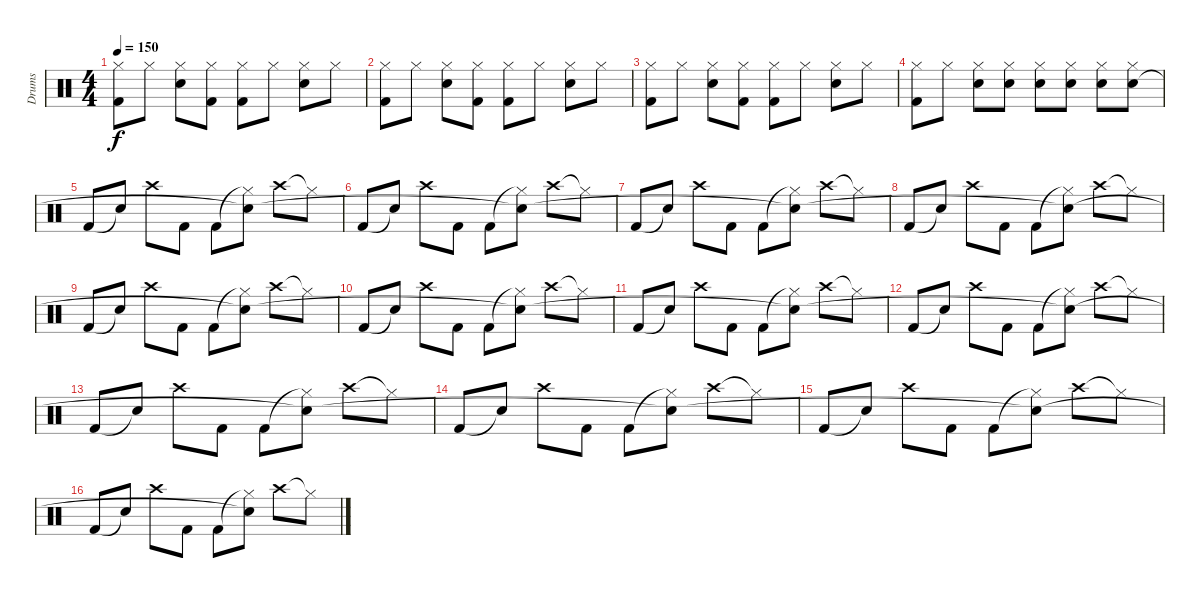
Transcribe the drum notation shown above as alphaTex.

\track ("Drums" "Drums") {instrument percussion}
\staff {score}
\articulation defaults
\ts (4 4)
\tempo 150
\clef neutral
\ks c
("Hi-Hat (closed)" "Kick (hit) 2").8{dy f} "Hi-Hat (closed)".8 ("Hi-Hat (closed)" "Snare (hit) 2").8 ("Hi-Hat (closed)" "Kick (hit) 2").8 ("Hi-Hat (closed)" "Kick (hit) 2").8 "Hi-Hat (closed)".8 ("Hi-Hat (closed)" "Snare (hit) 2").8 "Hi-Hat (closed)".8 |
("Hi-Hat (closed)" "Kick (hit) 2").8 "Hi-Hat (closed)".8 ("Hi-Hat (closed)" "Snare (hit) 2").8 ("Hi-Hat (closed)" "Kick (hit) 2").8 ("Hi-Hat (closed)" "Kick (hit) 2").8 "Hi-Hat (closed)".8 ("Hi-Hat (closed)" "Snare (hit) 2").8 "Hi-Hat (closed)".8 |
("Hi-Hat (closed)" "Kick (hit) 2").8 "Hi-Hat (closed)".8 ("Hi-Hat (closed)" "Snare (hit) 2").8 ("Hi-Hat (closed)" "Kick (hit) 2").8 ("Hi-Hat (closed)" "Kick (hit) 2").8 "Hi-Hat (closed)".8 ("Hi-Hat (closed)" "Snare (hit) 2").8 "Hi-Hat (closed)".8 |
("Hi-Hat (closed)" "Kick (hit) 2").8 "Hi-Hat (closed)".8 ("Hi-Hat (closed)" "Snare (hit) 2").8 ("Hi-Hat (closed)" "Snare (hit) 2").8 ("Hi-Hat (closed)" "Snare (hit) 2").8 ("Hi-Hat (closed)" "Snare (hit) 2").8 ("Hi-Hat (closed)" "Snare (hit) 2").8 ("Hi-Hat (closed)" "Snare (hit) 2").8 |
"Kick (hit) 2".8 "Snare (hit)"{t}.8 "Crash high (hit)".8 "Kick (hit) 2".8 "Kick (hit) 2".8 ("Hi-Hat (closed)"{t} "Snare (hit)"{t}).8 "Crash high (hit)".8 "Hi-Hat (closed)"{t}.8 |
"Kick (hit) 2".8 "Snare (hit)"{t}.8 "Crash high (hit)".8 "Kick (hit) 2".8 "Kick (hit) 2".8 ("Hi-Hat (closed)"{t} "Snare (hit)"{t}).8 "Crash high (hit)".8 "Hi-Hat (closed)"{t}.8 |
"Kick (hit) 2".8 "Snare (hit)"{t}.8 "Crash high (hit)".8 "Kick (hit) 2".8 "Kick (hit) 2".8 ("Hi-Hat (closed)"{t} "Snare (hit)"{t}).8 "Crash high (hit)".8 "Hi-Hat (closed)"{t}.8 |
"Kick (hit) 2".8 "Snare (hit)"{t}.8 "Crash high (hit)".8 "Kick (hit) 2".8 "Kick (hit) 2".8 ("Hi-Hat (closed)"{t} "Snare (hit)"{t}).8 "Crash high (hit)".8 "Hi-Hat (closed)"{t}.8 |
"Kick (hit) 2".8 "Snare (hit)"{t}.8 "Crash high (hit)".8 "Kick (hit) 2".8 "Kick (hit) 2".8 ("Hi-Hat (closed)"{t} "Snare (hit)"{t}).8 "Crash high (hit)".8 "Hi-Hat (closed)"{t}.8 |
"Kick (hit) 2".8 "Snare (hit)"{t}.8 "Crash high (hit)".8 "Kick (hit) 2".8 "Kick (hit) 2".8 ("Hi-Hat (closed)"{t} "Snare (hit)"{t}).8 "Crash high (hit)".8 "Hi-Hat (closed)"{t}.8 |
"Kick (hit) 2".8 "Snare (hit)"{t}.8 "Crash high (hit)".8 "Kick (hit) 2".8 "Kick (hit) 2".8 ("Hi-Hat (closed)"{t} "Snare (hit)"{t}).8 "Crash high (hit)".8 "Hi-Hat (closed)"{t}.8 |
"Kick (hit) 2".8 "Snare (hit)"{t}.8 "Crash high (hit)".8 "Kick (hit) 2".8 "Kick (hit) 2".8 ("Hi-Hat (closed)"{t} "Snare (hit)"{t}).8 "Crash high (hit)".8 "Hi-Hat (closed)"{t}.8 |
"Kick (hit) 2".8 "Snare (hit)"{t}.8 "Crash high (hit)".8 "Kick (hit) 2".8 "Kick (hit) 2".8 ("Hi-Hat (closed)"{t} "Snare (hit)"{t}).8 "Crash high (hit)".8 "Hi-Hat (closed)"{t}.8 |
"Kick (hit) 2".8 "Snare (hit)"{t}.8 "Crash high (hit)".8 "Kick (hit) 2".8 "Kick (hit) 2".8 ("Hi-Hat (closed)"{t} "Snare (hit)"{t}).8 "Crash high (hit)".8 "Hi-Hat (closed)"{t}.8 |
"Kick (hit) 2".8 "Snare (hit)"{t}.8 "Crash high (hit)".8 "Kick (hit) 2".8 "Kick (hit) 2".8 ("Hi-Hat (closed)"{t} "Snare (hit)"{t}).8 "Crash high (hit)".8 "Hi-Hat (closed)"{t}.8 |
"Kick (hit) 2".8 "Snare (hit)"{t}.8 "Crash high (hit)".8 "Kick (hit) 2".8 "Kick (hit) 2".8 ("Hi-Hat (closed)"{t} "Snare (hit)"{t}).8 "Crash high (hit)".8 "Hi-Hat (closed)"{t}.8
